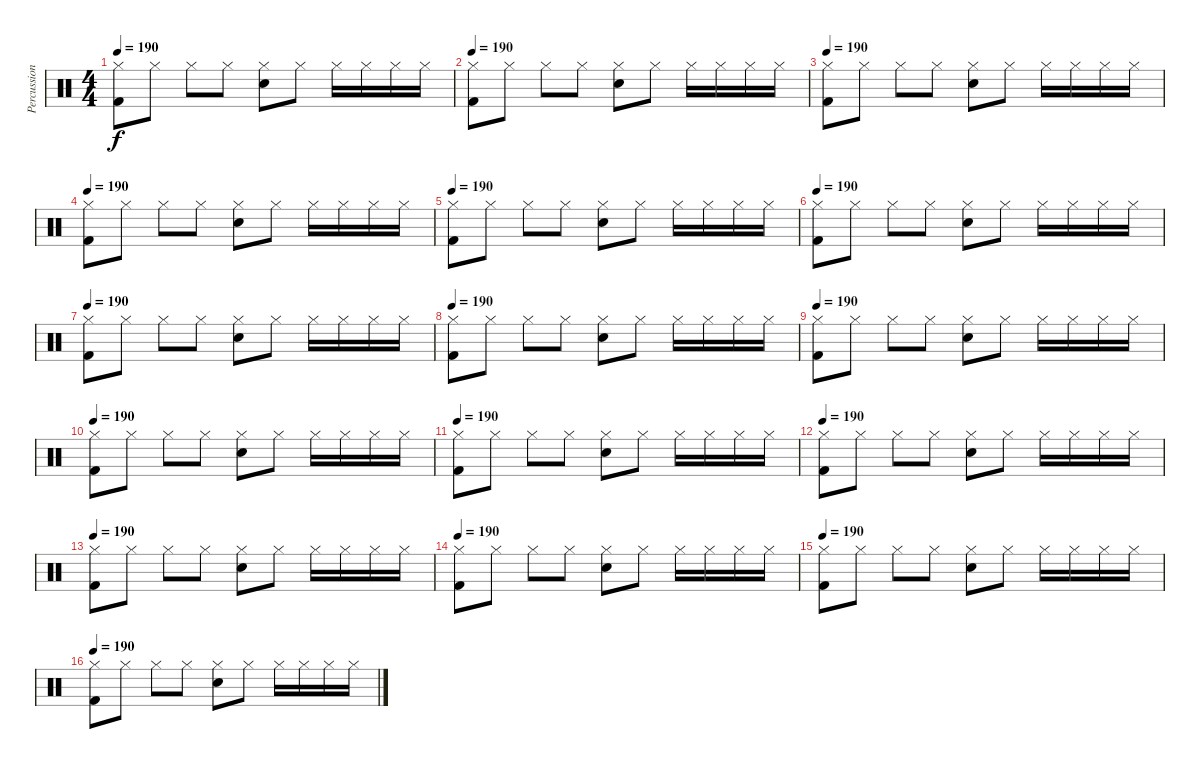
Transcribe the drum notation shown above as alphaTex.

\track ("Percussion" "Percussion") {instrument percussion}
\staff {score}
\articulation defaults
\ts (4 4)
\tempo 190
\clef neutral
\ks c
("Hi-Hat (closed)" "Kick (hit) 2").8{dy f} "Hi-Hat (closed)".8 "Hi-Hat (closed)".8 "Hi-Hat (closed)".8 ("Hi-Hat (closed)" "Electric Snare (hit)").8 "Hi-Hat (closed)".8 "Hi-Hat (closed)".16 "Hi-Hat (closed)".16 "Hi-Hat (closed)".16 "Hi-Hat (closed)".16 |
\tempo 190
("Hi-Hat (closed)" "Kick (hit) 2").8 "Hi-Hat (closed)".8 "Hi-Hat (closed)".8 "Hi-Hat (closed)".8 ("Hi-Hat (closed)" "Electric Snare (hit)").8 "Hi-Hat (closed)".8 "Hi-Hat (closed)".16 "Hi-Hat (closed)".16 "Hi-Hat (closed)".16 "Hi-Hat (closed)".16 |
\tempo 190
("Hi-Hat (closed)" "Kick (hit) 2").8 "Hi-Hat (closed)".8 "Hi-Hat (closed)".8 "Hi-Hat (closed)".8 ("Hi-Hat (closed)" "Electric Snare (hit)").8 "Hi-Hat (closed)".8 "Hi-Hat (closed)".16 "Hi-Hat (closed)".16 "Hi-Hat (closed)".16 "Hi-Hat (closed)".16 |
\tempo 190
("Hi-Hat (closed)" "Kick (hit) 2").8 "Hi-Hat (closed)".8 "Hi-Hat (closed)".8 "Hi-Hat (closed)".8 ("Hi-Hat (closed)" "Electric Snare (hit)").8 "Hi-Hat (closed)".8 "Hi-Hat (closed)".16 "Hi-Hat (closed)".16 "Hi-Hat (closed)".16 "Hi-Hat (closed)".16 |
\tempo 190
("Hi-Hat (closed)" "Kick (hit) 2").8 "Hi-Hat (closed)".8 "Hi-Hat (closed)".8 "Hi-Hat (closed)".8 ("Hi-Hat (closed)" "Electric Snare (hit)").8 "Hi-Hat (closed)".8 "Hi-Hat (closed)".16 "Hi-Hat (closed)".16 "Hi-Hat (closed)".16 "Hi-Hat (closed)".16 |
\tempo 190
("Hi-Hat (closed)" "Kick (hit) 2").8 "Hi-Hat (closed)".8 "Hi-Hat (closed)".8 "Hi-Hat (closed)".8 ("Hi-Hat (closed)" "Electric Snare (hit)").8 "Hi-Hat (closed)".8 "Hi-Hat (closed)".16 "Hi-Hat (closed)".16 "Hi-Hat (closed)".16 "Hi-Hat (closed)".16 |
\tempo 190
("Hi-Hat (closed)" "Kick (hit) 2").8 "Hi-Hat (closed)".8 "Hi-Hat (closed)".8 "Hi-Hat (closed)".8 ("Hi-Hat (closed)" "Electric Snare (hit)").8 "Hi-Hat (closed)".8 "Hi-Hat (closed)".16 "Hi-Hat (closed)".16 "Hi-Hat (closed)".16 "Hi-Hat (closed)".16 |
\tempo 190
("Hi-Hat (closed)" "Kick (hit) 2").8 "Hi-Hat (closed)".8 "Hi-Hat (closed)".8 "Hi-Hat (closed)".8 ("Hi-Hat (closed)" "Electric Snare (hit)").8 "Hi-Hat (closed)".8 "Hi-Hat (closed)".16 "Hi-Hat (closed)".16 "Hi-Hat (closed)".16 "Hi-Hat (closed)".16 |
\tempo 190
("Hi-Hat (closed)" "Kick (hit) 2").8 "Hi-Hat (closed)".8 "Hi-Hat (closed)".8 "Hi-Hat (closed)".8 ("Hi-Hat (closed)" "Electric Snare (hit)").8 "Hi-Hat (closed)".8 "Hi-Hat (closed)".16 "Hi-Hat (closed)".16 "Hi-Hat (closed)".16 "Hi-Hat (closed)".16 |
\tempo 190
("Hi-Hat (closed)" "Kick (hit) 2").8 "Hi-Hat (closed)".8 "Hi-Hat (closed)".8 "Hi-Hat (closed)".8 ("Hi-Hat (closed)" "Electric Snare (hit)").8 "Hi-Hat (closed)".8 "Hi-Hat (closed)".16 "Hi-Hat (closed)".16 "Hi-Hat (closed)".16 "Hi-Hat (closed)".16 |
\tempo 190
("Hi-Hat (closed)" "Kick (hit) 2").8 "Hi-Hat (closed)".8 "Hi-Hat (closed)".8 "Hi-Hat (closed)".8 ("Hi-Hat (closed)" "Electric Snare (hit)").8 "Hi-Hat (closed)".8 "Hi-Hat (closed)".16 "Hi-Hat (closed)".16 "Hi-Hat (closed)".16 "Hi-Hat (closed)".16 |
\tempo 190
("Hi-Hat (closed)" "Kick (hit) 2").8 "Hi-Hat (closed)".8 "Hi-Hat (closed)".8 "Hi-Hat (closed)".8 ("Hi-Hat (closed)" "Electric Snare (hit)").8 "Hi-Hat (closed)".8 "Hi-Hat (closed)".16 "Hi-Hat (closed)".16 "Hi-Hat (closed)".16 "Hi-Hat (closed)".16 |
\tempo 190
("Hi-Hat (closed)" "Kick (hit) 2").8 "Hi-Hat (closed)".8 "Hi-Hat (closed)".8 "Hi-Hat (closed)".8 ("Hi-Hat (closed)" "Electric Snare (hit)").8 "Hi-Hat (closed)".8 "Hi-Hat (closed)".16 "Hi-Hat (closed)".16 "Hi-Hat (closed)".16 "Hi-Hat (closed)".16 |
\tempo 190
("Hi-Hat (closed)" "Kick (hit) 2").8 "Hi-Hat (closed)".8 "Hi-Hat (closed)".8 "Hi-Hat (closed)".8 ("Hi-Hat (closed)" "Electric Snare (hit)").8 "Hi-Hat (closed)".8 "Hi-Hat (closed)".16 "Hi-Hat (closed)".16 "Hi-Hat (closed)".16 "Hi-Hat (closed)".16 |
\tempo 190
("Hi-Hat (closed)" "Kick (hit) 2").8 "Hi-Hat (closed)".8 "Hi-Hat (closed)".8 "Hi-Hat (closed)".8 ("Hi-Hat (closed)" "Electric Snare (hit)").8 "Hi-Hat (closed)".8 "Hi-Hat (closed)".16 "Hi-Hat (closed)".16 "Hi-Hat (closed)".16 "Hi-Hat (closed)".16 |
\tempo 190
("Hi-Hat (closed)" "Kick (hit) 2").8 "Hi-Hat (closed)".8 "Hi-Hat (closed)".8 "Hi-Hat (closed)".8 ("Hi-Hat (closed)" "Electric Snare (hit)").8 "Hi-Hat (closed)".8 "Hi-Hat (closed)".16 "Hi-Hat (closed)".16 "Hi-Hat (closed)".16 "Hi-Hat (closed)".16
